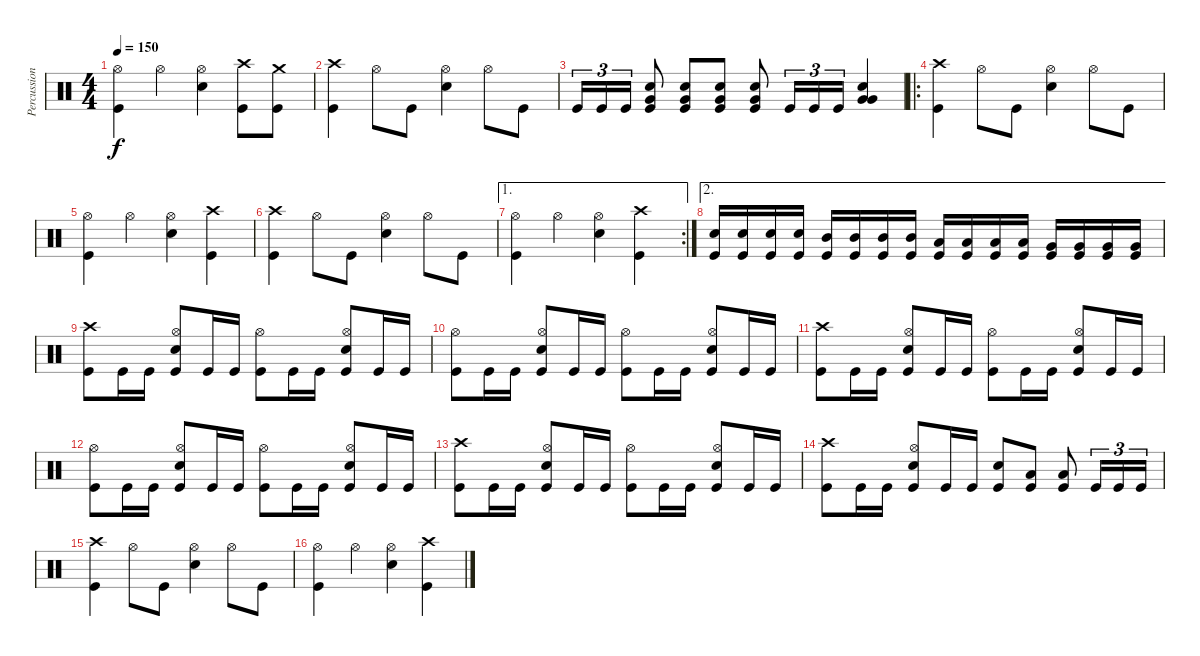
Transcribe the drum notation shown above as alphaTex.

\track ("Percussion" "Percussion") {instrument percussion}
\staff {score}
\articulation defaults
\ts (4 4)
\tempo 150
\clef neutral
\ks c
("Kick (hit)" "Hi-Hat (open)").4{dy f} "Hi-Hat (open)".4 ("Hi-Hat (open)" "Snare (hit) 2").4 ("Kick (hit)" "Crash high (hit)").8 ("Kick (hit)" "Crash medium (hit)").8 |
("Kick (hit)" "Crash high (hit)").4 "Hi-Hat (open)".8 "Kick (hit)".8 ("Hi-Hat (open)" "Snare (hit) 2").4 "Hi-Hat (open)".8 "Kick (hit)".8 |
"Kick (hit)".16{tu (3 2)} "Kick (hit)".16{tu (3 2)} "Kick (hit)".16{tu (3 2)} ("Kick (hit)" "Snare (hit) 2" "Very Low Tom (hit)").8 ("Kick (hit)" "Snare (hit) 2" "Very Low Tom (hit)").8 ("Kick (hit)" "Snare (hit) 2" "Very Low Tom (hit)").8 ("Kick (hit)" "Snare (hit) 2" "Very Low Tom (hit)").8 "Kick (hit)".16{tu (3 2)} "Kick (hit)".16{tu (3 2)} "Kick (hit)".16{tu (3 2)} ("Very Low Tom (hit)" "Very Low Tom (hit)" "Snare (hit) 2").4 |
\ro
("Kick (hit)" "Crash high (hit)").4 "Hi-Hat (open)".8 "Kick (hit)".8 ("Hi-Hat (open)" "Snare (hit) 2").4 "Hi-Hat (open)".8 "Kick (hit)".8 |
("Kick (hit)" "Hi-Hat (open)").4 "Hi-Hat (open)".4 ("Hi-Hat (open)" "Snare (hit) 2").4 ("Kick (hit)" "Crash high (hit)").4 |
("Kick (hit)" "Crash high (hit)").4 "Hi-Hat (open)".8 "Kick (hit)".8 ("Hi-Hat (open)" "Snare (hit) 2").4 "Hi-Hat (open)".8 "Kick (hit)".8 |
\ae 1
\rc 2
("Kick (hit)" "Hi-Hat (open)").4 "Hi-Hat (open)".4 ("Hi-Hat (open)" "Snare (hit) 2").4 ("Kick (hit)" "Crash high (hit)").4 |
\ae 2
("Kick (hit)" "Electric Snare (hit)").16 ("Kick (hit)" "Electric Snare (hit)").16 ("Kick (hit)" "Electric Snare (hit)").16 ("Kick (hit)" "Electric Snare (hit)").16 ("Kick (hit)" "Mid Tom (hit)").16 ("Kick (hit)" "Mid Tom (hit)").16 ("Kick (hit)" "Mid Tom (hit)").16 ("Kick (hit)" "Mid Tom (hit)").16 ("Kick (hit)" "Low Tom (hit)").16 ("Kick (hit)" "Low Tom (hit)").16 ("Kick (hit)" "Low Tom (hit)").16 ("Kick (hit)" "Low Tom (hit)").16 ("Kick (hit)" "Very Low Tom (hit)").16 ("Kick (hit)" "Very Low Tom (hit)").16 ("Kick (hit)" "Very Low Tom (hit)").16 ("Kick (hit)" "Very Low Tom (hit)").16 |
("Kick (hit)" "Crash high (hit)").8 "Kick (hit)".16 "Kick (hit)".16 ("Kick (hit)" "Hi-Hat (open)" "Snare (hit) 2").8 "Kick (hit)".16 "Kick (hit)".16 ("Kick (hit)" "Hi-Hat (open)").8 "Kick (hit)".16 "Kick (hit)".16 ("Kick (hit)" "Hi-Hat (open)" "Snare (hit) 2").8 "Kick (hit)".16 "Kick (hit)".16 |
("Kick (hit)" "Hi-Hat (open)").8 "Kick (hit)".16 "Kick (hit)".16 ("Kick (hit)" "Hi-Hat (open)" "Snare (hit) 2").8 "Kick (hit)".16 "Kick (hit)".16 ("Kick (hit)" "Hi-Hat (open)").8 "Kick (hit)".16 "Kick (hit)".16 ("Kick (hit)" "Hi-Hat (open)" "Snare (hit) 2").8 "Kick (hit)".16 "Kick (hit)".16 |
("Kick (hit)" "Crash high (hit)").8 "Kick (hit)".16 "Kick (hit)".16 ("Kick (hit)" "Hi-Hat (open)" "Snare (hit) 2").8 "Kick (hit)".16 "Kick (hit)".16 ("Kick (hit)" "Hi-Hat (open)").8 "Kick (hit)".16 "Kick (hit)".16 ("Kick (hit)" "Hi-Hat (open)" "Snare (hit) 2").8 "Kick (hit)".16 "Kick (hit)".16 |
("Kick (hit)" "Hi-Hat (open)").8 "Kick (hit)".16 "Kick (hit)".16 ("Kick (hit)" "Hi-Hat (open)" "Snare (hit) 2").8 "Kick (hit)".16 "Kick (hit)".16 ("Kick (hit)" "Hi-Hat (open)").8 "Kick (hit)".16 "Kick (hit)".16 ("Kick (hit)" "Hi-Hat (open)" "Snare (hit) 2").8 "Kick (hit)".16 "Kick (hit)".16 |
("Kick (hit)" "Crash high (hit)").8 "Kick (hit)".16 "Kick (hit)".16 ("Kick (hit)" "Hi-Hat (open)" "Snare (hit) 2").8 "Kick (hit)".16 "Kick (hit)".16 ("Kick (hit)" "Hi-Hat (open)").8 "Kick (hit)".16 "Kick (hit)".16 ("Kick (hit)" "Hi-Hat (open)" "Snare (hit) 2").8 "Kick (hit)".16 "Kick (hit)".16 |
("Kick (hit)" "Crash high (hit)").8 "Kick (hit)".16 "Kick (hit)".16 ("Kick (hit)" "Hi-Hat (open)" "Snare (hit) 2").8 "Kick (hit)".16 "Kick (hit)".16 ("Kick (hit)" "Snare (hit) 2").8 ("Kick (hit)" "Low Tom (hit)").8 ("Kick (hit)" "Low Floor Tom (hit)").8 "Kick (hit)".16{tu (3 2)} "Kick (hit)".16{tu (3 2)} "Kick (hit)".16{tu (3 2)} |
("Kick (hit)" "Crash high (hit)").4 "Hi-Hat (open)".8 "Kick (hit)".8 ("Hi-Hat (open)" "Snare (hit) 2").4 "Hi-Hat (open)".8 "Kick (hit)".8 |
("Kick (hit)" "Hi-Hat (open)").4 "Hi-Hat (open)".4 ("Hi-Hat (open)" "Snare (hit) 2").4 ("Kick (hit)" "Crash high (hit)").4
